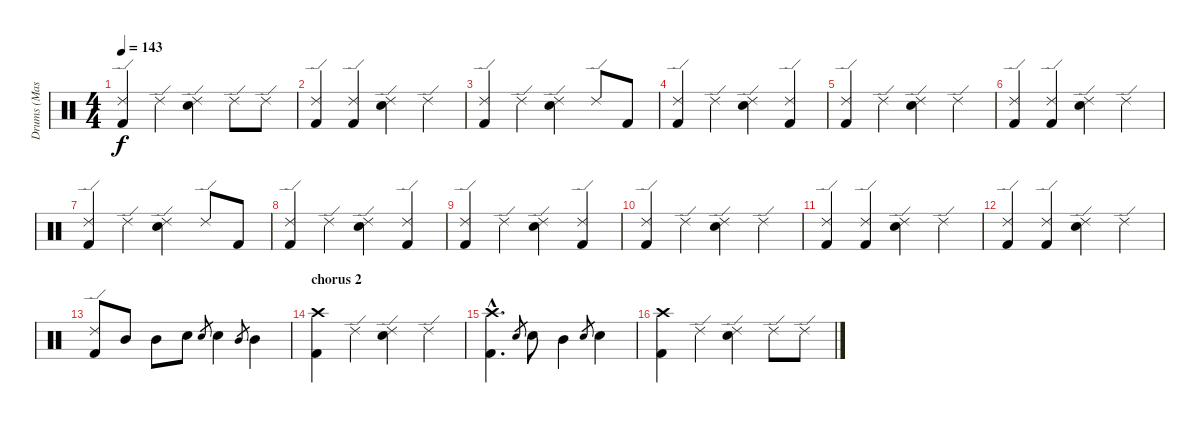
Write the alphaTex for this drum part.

\track ("Drums (Mason)" "Drums (Mas") {instrument percussion}
\staff {score}
\articulation defaults
\ts (4 4)
\tempo 143
\clef neutral
\ks c
("Ride (edge) 2" "Kick (hit) 2").4{dy f} "Ride (edge) 2".4 ("Ride (edge) 2" "Electric Snare (hit)").4 "Ride (edge) 2".8 "Ride (edge) 2".8 |
("Ride (edge) 2" "Kick (hit) 2").4 ("Ride (edge) 2" "Kick (hit) 2").4 ("Ride (edge) 2" "Electric Snare (hit)").4 "Ride (edge) 2".4 |
("Ride (edge) 2" "Kick (hit) 2").4 "Ride (edge) 2".4 ("Ride (edge) 2" "Electric Snare (hit)").4 "Ride (edge) 2".8 "Kick (hit) 2".8 |
("Ride (edge) 2" "Kick (hit) 2").4 "Ride (edge) 2".4 ("Ride (edge) 2" "Electric Snare (hit)").4 ("Ride (edge) 2" "Kick (hit) 2").4 |
("Ride (edge) 2" "Kick (hit) 2").4 "Ride (edge) 2".4 ("Ride (edge) 2" "Electric Snare (hit)").4 "Ride (edge) 2".4 |
("Ride (edge) 2" "Kick (hit) 2").4 ("Ride (edge) 2" "Kick (hit) 2").4 ("Ride (edge) 2" "Electric Snare (hit)").4 "Ride (edge) 2".4 |
("Ride (edge) 2" "Kick (hit) 2").4 "Ride (edge) 2".4 ("Ride (edge) 2" "Electric Snare (hit)").4 "Ride (edge) 2".8 "Kick (hit) 2".8 |
("Ride (edge) 2" "Kick (hit) 2").4 "Ride (edge) 2".4 ("Ride (edge) 2" "Electric Snare (hit)").4 ("Ride (edge) 2" "Kick (hit) 2").4 |
("Ride (edge) 2" "Kick (hit) 2").4 "Ride (edge) 2".4 ("Ride (edge) 2" "Electric Snare (hit)").4 ("Ride (edge) 2" "Kick (hit) 2").4 |
("Ride (edge) 2" "Kick (hit) 2").4 "Ride (edge) 2".4 ("Ride (edge) 2" "Electric Snare (hit)").4 "Ride (edge) 2".4 |
("Ride (edge) 2" "Kick (hit) 2").4 ("Ride (edge) 2" "Kick (hit) 2").4 ("Ride (edge) 2" "Electric Snare (hit)").4 "Ride (edge) 2".4 |
("Ride (edge) 2" "Kick (hit) 2").4 ("Ride (edge) 2" "Kick (hit) 2").4 ("Ride (edge) 2" "Electric Snare (hit)").4 "Ride (edge) 2".4 |
("Ride (edge) 2" "Kick (hit) 2").8 "Mid Tom (hit)".8 "Mid Tom (hit)".8 "Electric Snare (hit)".8 "Electric Snare (hit)".8{gr} "Electric Snare (hit)".4 "Mid Tom (hit)".8{gr} "Mid Tom (hit)".4 |
\section ("" "chorus 2")
("Crash high (hit)" "Kick (hit) 2").4 "Ride (edge) 2".4 ("Ride (edge) 2" "Electric Snare (hit)").4 "Ride (edge) 2".4 |
("Crash high (hit)"{hac} "Kick (hit) 2"{hac}).4{d} "Electric Snare (hit)".8{gr} "Electric Snare (hit)".8 "Mid Tom (hit)".4 "Electric Snare (hit)".8{gr} "Electric Snare (hit)".4 |
("Crash high (hit)" "Kick (hit) 2").4 "Ride (edge) 2".4 ("Ride (edge) 2" "Electric Snare (hit)").4 "Ride (edge) 2".8 "Ride (edge) 2".8
